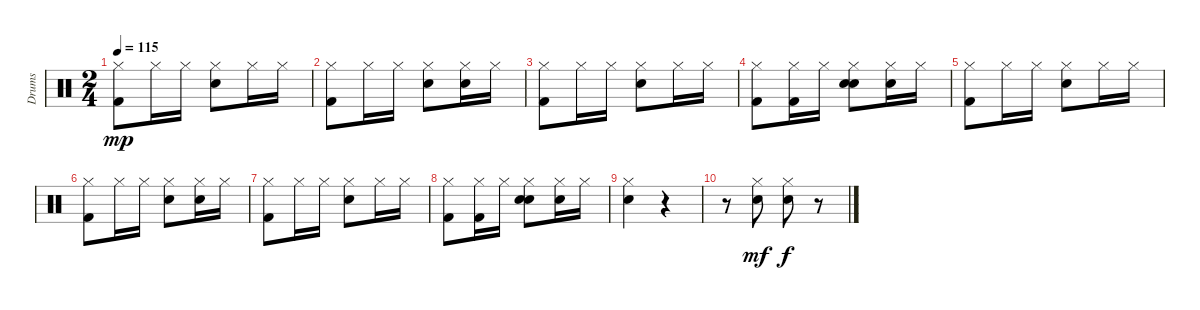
\track ("Drums" "Drums") {instrument percussion}
\staff {score}
\articulation defaults
\ts (2 4)
\tempo 115
\clef neutral
\ks c
("Hi-Hat (closed)" "Kick (hit) 2").8{dy mp} "Hi-Hat (closed)".16 "Hi-Hat (closed)".16 ("Hi-Hat (closed)" "Electric Snare (hit)").8 "Hi-Hat (closed)".16 "Hi-Hat (closed)".16 |
("Hi-Hat (closed)" "Kick (hit) 2").8 "Hi-Hat (closed)".16 "Hi-Hat (closed)".16 ("Hi-Hat (closed)" "Electric Snare (hit)").8 ("Hi-Hat (closed)" "Hand Clap (hit)").16 "Hi-Hat (closed)".16 |
("Hi-Hat (closed)" "Kick (hit) 2").8 "Hi-Hat (closed)".16 "Hi-Hat (closed)".16 ("Hi-Hat (closed)" "Electric Snare (hit)").8 "Hi-Hat (closed)".16 "Hi-Hat (closed)".16 |
("Hi-Hat (closed)" "Kick (hit) 2").8 ("Hi-Hat (closed)" "Kick (hit) 2").16 "Hi-Hat (closed)".16 ("Hi-Hat (closed)" "Hand Clap (hit)" "Electric Snare (hit)").8 ("Hi-Hat (closed)" "Hand Clap (hit)").16 "Hi-Hat (closed)".16 |
("Hi-Hat (closed)" "Kick (hit) 2").8 "Hi-Hat (closed)".16 "Hi-Hat (closed)".16 ("Hi-Hat (closed)" "Electric Snare (hit)").8 "Hi-Hat (closed)".16 "Hi-Hat (closed)".16 |
("Hi-Hat (closed)" "Kick (hit) 2").8 "Hi-Hat (closed)".16 "Hi-Hat (closed)".16 ("Hi-Hat (closed)" "Electric Snare (hit)").8 ("Hi-Hat (closed)" "Hand Clap (hit)").16 "Hi-Hat (closed)".16 |
("Hi-Hat (closed)" "Kick (hit) 2").8 "Hi-Hat (closed)".16 "Hi-Hat (closed)".16 ("Hi-Hat (closed)" "Electric Snare (hit)").8 "Hi-Hat (closed)".16 "Hi-Hat (closed)".16 |
("Hi-Hat (closed)" "Kick (hit) 2").8 ("Hi-Hat (closed)" "Kick (hit) 2").16 "Hi-Hat (closed)".16 ("Hi-Hat (closed)" "Hand Clap (hit)" "Electric Snare (hit)").8 ("Hi-Hat (closed)" "Hand Clap (hit)").16 "Hi-Hat (closed)".16 |
("Hi-Hat (closed)" "Electric Snare (hit)").4 r.4 |
r.8 ("Hi-Hat (closed)" "Electric Snare (hit)").8{dy mf} ("Hi-Hat (closed)" "Electric Snare (hit)").8{dy f} r.8
